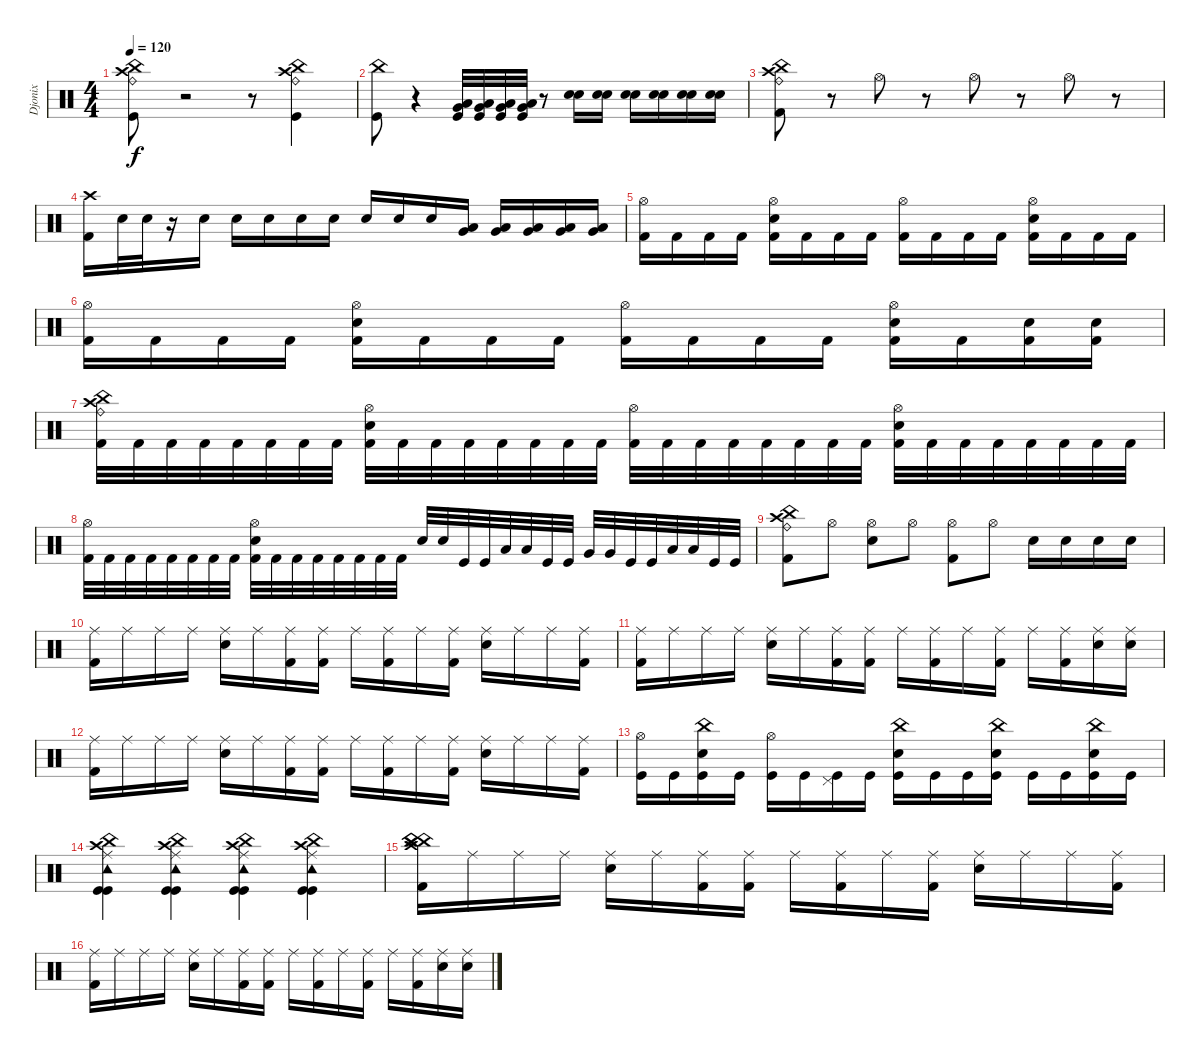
\track ("Djonix" "Djonix") {instrument percussion}
\staff {score}
\articulation defaults
\ts (4 4)
\tempo 120
\clef neutral
\ks c
("China (hit)" "Ride (bell)" "Crash high (hit)" "Kick (hit)").8{dy f} r.2 r.8 ("China (hit)" "Ride (bell)" "Crash high (hit)" "Kick (hit)").4 |
("China (hit)" "Kick (hit)").8 r.4 ("Low Floor Tom (hit)" "Very Low Tom (hit)" "Kick (hit)").32 ("Low Floor Tom (hit)" "Very Low Tom (hit)" "Kick (hit)").32 ("Low Floor Tom (hit)" "Very Low Tom (hit)" "Kick (hit)").32 ("Low Floor Tom (hit)" "Very Low Tom (hit)" "Kick (hit)").32 r.8 ("Snare (hit) 2" "Electric Snare (hit)").16 ("Snare (hit) 2" "Electric Snare (hit)").16 ("Snare (hit) 2" "Electric Snare (hit)").16 ("Snare (hit) 2" "Electric Snare (hit)").16 ("Snare (hit) 2" "Electric Snare (hit)").16 ("Snare (hit) 2" "Electric Snare (hit)").16 |
("Crash high (hit)" "China (hit)" "Ride (bell)" "Kick (hit) 2").8 r.8 "Hi-Hat (open)".8 r.8 "Hi-Hat (open)".8 r.8 "Hi-Hat (open)".8 r.8 |
("Crash high (hit)" "Kick (hit) 2").16 "Snare (hit) 2".32 "Snare (hit) 2".32 r.16 "Snare (hit) 2".16 "Snare (hit) 2".16 "Snare (hit) 2".16 "Snare (hit) 2".16 "Snare (hit) 2".16 "Snare (hit) 2".16 "Snare (hit) 2".16 "Snare (hit) 2".16 ("Very Low Tom (hit)" "Low Tom (hit)").16 ("Very Low Tom (hit)" "Low Tom (hit)").16 ("Very Low Tom (hit)" "Low Tom (hit)").16 ("Very Low Tom (hit)" "Low Tom (hit)").16 ("Very Low Tom (hit)" "Low Tom (hit)").16 |
("Hi-Hat (open)" "Kick (hit) 2").16 "Kick (hit) 2".16 "Kick (hit) 2".16 "Kick (hit) 2".16 ("Hi-Hat (open)" "Snare (hit) 2" "Kick (hit) 2").16 "Kick (hit) 2".16 "Kick (hit) 2".16 "Kick (hit) 2".16 ("Hi-Hat (open)" "Kick (hit) 2").16 "Kick (hit) 2".16 "Kick (hit) 2".16 "Kick (hit) 2".16 ("Hi-Hat (open)" "Snare (hit) 2" "Kick (hit) 2").16 "Kick (hit) 2".16 "Kick (hit) 2".16 "Kick (hit) 2".16 |
("Hi-Hat (open)" "Kick (hit) 2").16 "Kick (hit) 2".16 "Kick (hit) 2".16 "Kick (hit) 2".16 ("Hi-Hat (open)" "Snare (hit) 2" "Kick (hit) 2").16 "Kick (hit) 2".16 "Kick (hit) 2".16 "Kick (hit) 2".16 ("Hi-Hat (open)" "Kick (hit) 2").16 "Kick (hit) 2".16 "Kick (hit) 2".16 "Kick (hit) 2".16 ("Hi-Hat (open)" "Snare (hit) 2" "Kick (hit) 2").16 "Kick (hit) 2".16 ("Snare (hit) 2" "Kick (hit) 2").16 ("Snare (hit) 2" "Kick (hit) 2").16 |
("China (hit)" "Ride (bell)" "Crash high (hit)" "Kick (hit) 2").32 "Kick (hit) 2".32 "Kick (hit) 2".32 "Kick (hit) 2".32 "Kick (hit) 2".32 "Kick (hit) 2".32 "Kick (hit) 2".32 "Kick (hit) 2".32 ("Hi-Hat (open)" "Snare (hit) 2" "Kick (hit) 2").32 "Kick (hit) 2".32 "Kick (hit) 2".32 "Kick (hit) 2".32 "Kick (hit) 2".32 "Kick (hit) 2".32 "Kick (hit) 2".32 "Kick (hit) 2".32 ("Hi-Hat (open)" "Kick (hit) 2").32 "Kick (hit) 2".32 "Kick (hit) 2".32 "Kick (hit) 2".32 "Kick (hit) 2".32 "Kick (hit) 2".32 "Kick (hit) 2".32 "Kick (hit) 2".32 ("Hi-Hat (open)" "Snare (hit) 2" "Kick (hit) 2").32 "Kick (hit) 2".32 "Kick (hit) 2".32 "Kick (hit) 2".32 "Kick (hit) 2".32 "Kick (hit) 2".32 "Kick (hit) 2".32 "Kick (hit) 2".32 |
("Hi-Hat (open)" "Kick (hit) 2").32 "Kick (hit) 2".32 "Kick (hit) 2".32 "Kick (hit) 2".32 "Kick (hit) 2".32 "Kick (hit) 2".32 "Kick (hit) 2".32 "Kick (hit) 2".32 ("Hi-Hat (open)" "Snare (hit) 2" "Kick (hit) 2").32 "Kick (hit) 2".32 "Kick (hit) 2".32 "Kick (hit) 2".32 "Kick (hit) 2".32 "Kick (hit) 2".32 "Kick (hit) 2".32 "Kick (hit) 2".32 "Snare (hit) 2".32 "Snare (hit) 2".32 "Kick (hit)".32 "Kick (hit)".32 "Low Tom (hit)".32 "Low Tom (hit)".32 "Kick (hit)".32 "Kick (hit)".32 "Very Low Tom (hit)".32 "Very Low Tom (hit)".32 "Kick (hit)".32 "Kick (hit)".32 "Low Floor Tom (hit)".32 "Low Floor Tom (hit)".32 "Kick (hit)".32 "Kick (hit)".32 |
("China (hit)" "Ride (bell)" "Crash high (hit)" "Kick (hit) 2").8 "Hi-Hat (open)".8 ("Hi-Hat (open)" "Snare (hit) 2").8 "Hi-Hat (open)".8 ("Hi-Hat (open)" "Kick (hit) 2").8 "Hi-Hat (open)".8 "Snare (hit) 2".16 "Snare (hit) 2".16 "Snare (hit) 2".16 "Snare (hit) 2".16 |
("Ride (middle)" "Kick (hit) 2").16 "Ride (middle)".16 "Ride (middle)".16 "Ride (middle)".16 ("Ride (middle)" "Snare (hit) 2").16 "Ride (middle)".16 ("Ride (middle)" "Kick (hit) 2").16 ("Ride (middle)" "Kick (hit) 2").16 "Ride (middle)".16 ("Ride (middle)" "Kick (hit) 2").16 "Ride (middle)".16 ("Ride (middle)" "Kick (hit) 2").16 ("Ride (middle)" "Snare (hit) 2").16 "Ride (middle)".16 "Ride (middle)".16 ("Ride (middle)" "Kick (hit) 2").16 |
("Ride (middle)" "Kick (hit) 2").16 "Ride (middle)".16 "Ride (middle)".16 "Ride (middle)".16 ("Ride (middle)" "Snare (hit) 2").16 "Ride (middle)".16 ("Ride (middle)" "Kick (hit) 2").16 ("Ride (middle)" "Kick (hit) 2").16 "Ride (middle)".16 ("Ride (middle)" "Kick (hit) 2").16 "Ride (middle)".16 ("Ride (middle)" "Kick (hit) 2").16 "Ride (middle)".16 ("Ride (middle)" "Kick (hit) 2").16 ("Ride (middle)" "Snare (hit) 2").16 ("Ride (middle)" "Snare (hit) 2").16 |
("Ride (middle)" "Kick (hit) 2").16 "Ride (middle)".16 "Ride (middle)".16 "Ride (middle)".16 ("Ride (middle)" "Snare (hit) 2").16 "Ride (middle)".16 ("Ride (middle)" "Kick (hit) 2").16 ("Ride (middle)" "Kick (hit) 2").16 "Ride (middle)".16 ("Ride (middle)" "Kick (hit) 2").16 "Ride (middle)".16 ("Ride (middle)" "Kick (hit) 2").16 ("Ride (middle)" "Snare (hit) 2").16 "Ride (middle)".16 "Ride (middle)".16 ("Ride (middle)" "Kick (hit) 2").16 |
("Hi-Hat (open)" "Kick (hit)").16 "Kick (hit)".16 ("China (hit)" "Snare (hit) 2" "Kick (hit)").16 "Kick (hit)".16 ("Hi-Hat (open)" "Kick (hit)").16 "Kick (hit)".16 ("Pedal Hi-Hat (hit)" "Kick (hit)").16 "Kick (hit)".16 ("China (hit)" "Snare (hit) 2" "Kick (hit)").16 "Kick (hit)".16 "Kick (hit)".16 ("China (hit)" "Snare (hit) 2" "Kick (hit)").16 "Kick (hit)".16 "Kick (hit)".16 ("China (hit)" "Snare (hit) 2" "Kick (hit)").16 "Kick (hit)".16 |
("China (hit)" "Ride (middle)" "Crash high (hit)" "Tambourine (hit)" "Kick (hit)" "Kick (hit)").4 ("China (hit)" "Ride (middle)" "Crash high (hit)" "Tambourine (hit)" "Kick (hit)" "Kick (hit)").4 ("China (hit)" "Ride (middle)" "Crash high (hit)" "Tambourine (hit)" "Kick (hit)" "Kick (hit)").4 ("China (hit)" "Crash high (hit)" "Ride (middle)" "Tambourine (hit)" "Kick (hit)" "Kick (hit)").4 |
("China (hit)" "Crash high (hit)" "China (hit)" "China (hit)" "Kick (hit) 2").16 "Ride (middle)".16 "Ride (middle)".16 "Ride (middle)".16 ("Ride (middle)" "Snare (hit) 2").16 "Ride (middle)".16 ("Ride (middle)" "Kick (hit) 2").16 ("Ride (middle)" "Kick (hit) 2").16 "Ride (middle)".16 ("Ride (middle)" "Kick (hit) 2").16 "Ride (middle)".16 ("Ride (middle)" "Kick (hit) 2").16 ("Ride (middle)" "Snare (hit) 2").16 "Ride (middle)".16 "Ride (middle)".16 ("Ride (middle)" "Kick (hit) 2").16 |
("Ride (middle)" "Kick (hit) 2").16 "Ride (middle)".16 "Ride (middle)".16 "Ride (middle)".16 ("Ride (middle)" "Snare (hit) 2").16 "Ride (middle)".16 ("Ride (middle)" "Kick (hit) 2").16 ("Ride (middle)" "Kick (hit) 2").16 "Ride (middle)".16 ("Ride (middle)" "Kick (hit) 2").16 "Ride (middle)".16 ("Ride (middle)" "Kick (hit) 2").16 "Ride (middle)".16 ("Ride (middle)" "Kick (hit) 2").16 ("Ride (middle)" "Snare (hit) 2").16 ("Ride (middle)" "Snare (hit) 2").16
